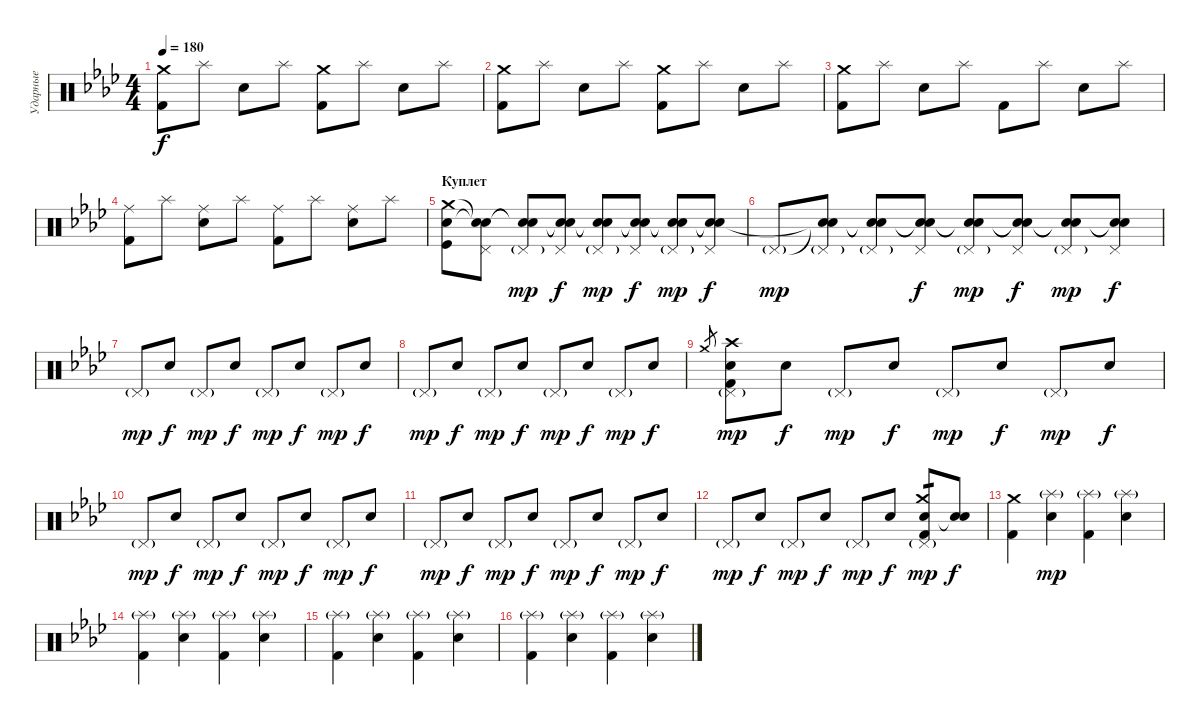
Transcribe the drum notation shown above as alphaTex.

\track ("Ударные" "Ударные") {instrument percussion}
\staff {score}
\articulation defaults
\ts (4 4)
\tempo 180
\clef neutral
\ks ab
("Kick (hit) 2" "Crash medium (hit)").8{dy f} "Splash (hit)".8 "Electric Snare (hit)".8 "Splash (hit)".8 ("Kick (hit) 2" "Crash medium (hit)").8 "Splash (hit)".8 "Electric Snare (hit)".8 "Splash (hit)".8 |
("Kick (hit) 2" "Crash medium (hit)").8 "Splash (hit)".8 "Electric Snare (hit)".8 "Splash (hit)".8 ("Kick (hit) 2" "Crash medium (hit)").8 "Splash (hit)".8 "Electric Snare (hit)".8 "Splash (hit)".8 |
("Kick (hit) 2" "Crash medium (hit)").8 "Splash (hit)".8 "Electric Snare (hit)".8 "Splash (hit)".8 "Kick (hit) 2".8 "Splash (hit)".8 "Electric Snare (hit)".8 "Splash (hit)".8 |
("Kick (hit) 2" "Ride (middle)").8 "Splash (hit)".8 ("Electric Snare (hit)" "Ride (middle)").8 "Splash (hit)".8 ("Kick (hit) 2" "Ride (middle)").8 "Splash (hit)".8 ("Electric Snare (hit)" "Ride (middle)").8 "Splash (hit)".8 |
\section ("" "Куплет")
("Crash medium (hit)" "Electric Snare (hit)" "Kick (hit)").8 ("Snare (hit)"{t} "Snare (hit)"{t} "Pedal Hi-Hat (hit)"{x}).8 ("Snare (hit)"{t} "Snare (hit)"{t} "Pedal Hi-Hat (hit)"{g}).8{dy mp} ("Snare (hit)"{t} "Snare (hit)"{t} "Pedal Hi-Hat (hit)"{x}).8{dy f} ("Snare (hit)"{t} "Snare (hit)"{t} "Pedal Hi-Hat (hit)"{g}).8{dy mp} ("Snare (hit)"{t} "Snare (hit)"{t} "Pedal Hi-Hat (hit)"{x}).8{dy f} ("Snare (hit)"{t} "Snare (hit)"{t} "Pedal Hi-Hat (hit)"{g}).8{dy mp} ("Snare (hit)"{t} "Snare (hit)"{t} "Pedal Hi-Hat (hit)"{x}).8{dy f} |
"Pedal Hi-Hat (hit)"{g}.8{dy mp} ("Snare (hit)"{t} "Snare (hit)"{t} "Pedal Hi-Hat (hit)"{g x}).8 ("Snare (hit)"{t} "Snare (hit)"{t} "Pedal Hi-Hat (hit)"{g}).8 ("Snare (hit)"{t} "Snare (hit)"{t} "Pedal Hi-Hat (hit)"{x}).8{dy f} ("Snare (hit)"{t} "Snare (hit)"{t} "Pedal Hi-Hat (hit)"{g}).8{dy mp} ("Snare (hit)"{t} "Snare (hit)"{t} "Pedal Hi-Hat (hit)"{x}).8{dy f} ("Snare (hit)"{t} "Snare (hit)"{t} "Pedal Hi-Hat (hit)"{g}).8{dy mp} ("Snare (hit)"{t} "Snare (hit)"{t} "Pedal Hi-Hat (hit)"{x}).8{dy f} |
"Pedal Hi-Hat (hit)"{g}.8{dy mp} "Snare (hit)"{x}.8{dy f} "Pedal Hi-Hat (hit)"{g}.8{dy mp} "Snare (hit)"{x}.8{dy f} "Pedal Hi-Hat (hit)"{g}.8{dy mp} "Snare (hit)"{x}.8{dy f} "Pedal Hi-Hat (hit)"{g}.8{dy mp} "Snare (hit)"{x}.8{dy f} |
"Pedal Hi-Hat (hit)"{g}.8{dy mp} "Snare (hit)"{x}.8{dy f} "Pedal Hi-Hat (hit)"{g}.8{dy mp} "Snare (hit)"{x}.8{dy f} "Pedal Hi-Hat (hit)"{g}.8{dy mp} "Snare (hit)"{x}.8{dy f} "Pedal Hi-Hat (hit)"{g}.8{dy mp} "Snare (hit)"{x}.8{dy f} |
"Crash medium (hit)".8{gr} ("Kick (hit) 2" "Electric Snare (hit)" "Pedal Hi-Hat (hit)"{g} "Crash high (hit)").8{dy mp} "Snare (hit)"{x}.8{dy f} "Pedal Hi-Hat (hit)"{g}.8{dy mp} "Snare (hit)"{x}.8{dy f} "Pedal Hi-Hat (hit)"{g}.8{dy mp} "Snare (hit)"{x}.8{dy f} "Pedal Hi-Hat (hit)"{g}.8{dy mp} "Snare (hit)"{x}.8{dy f} |
"Pedal Hi-Hat (hit)"{g}.8{dy mp} "Snare (hit)"{x}.8{dy f} "Pedal Hi-Hat (hit)"{g}.8{dy mp} "Snare (hit)"{x}.8{dy f} "Pedal Hi-Hat (hit)"{g}.8{dy mp} "Snare (hit)"{x}.8{dy f} "Pedal Hi-Hat (hit)"{g}.8{dy mp} "Snare (hit)"{x}.8{dy f} |
"Pedal Hi-Hat (hit)"{g}.8{dy mp} "Snare (hit)"{x}.8{dy f} "Pedal Hi-Hat (hit)"{g}.8{dy mp} "Snare (hit)"{x}.8{dy f} "Pedal Hi-Hat (hit)"{g}.8{dy mp} "Snare (hit)"{x}.8{dy f} "Pedal Hi-Hat (hit)"{g}.8{dy mp} "Snare (hit)"{x}.8{dy f} |
"Pedal Hi-Hat (hit)"{g}.8{dy mp} "Snare (hit)"{x}.8{dy f} "Pedal Hi-Hat (hit)"{g}.8{dy mp} "Snare (hit)"{x}.8{dy f} "Pedal Hi-Hat (hit)"{g}.8{dy mp} "Snare (hit)"{x}.8{dy f} ("Electric Snare (hit)" "Kick (hit) 2" "Pedal Hi-Hat (hit)"{g} "Crash medium (hit)").8{tp 1 dy mp} ("Snare (hit)"{t} "Snare (hit)"{x}).8{dy f} |
("Kick (hit) 2" "Crash medium (hit)").4 ("Electric Snare (hit)" "Splash (hit)"{g}).4{dy mp} ("Kick (hit) 2" "Splash (hit)"{g}).4 ("Electric Snare (hit)" "Splash (hit)"{g}).4 |
("Kick (hit) 2" "Splash (hit)"{g}).4 ("Electric Snare (hit)" "Splash (hit)"{g}).4 ("Kick (hit) 2" "Splash (hit)"{g}).4 ("Electric Snare (hit)" "Splash (hit)"{g}).4 |
("Kick (hit) 2" "Splash (hit)"{g}).4 ("Electric Snare (hit)" "Splash (hit)"{g}).4 ("Kick (hit) 2" "Splash (hit)"{g}).4 ("Electric Snare (hit)" "Splash (hit)"{g}).4 |
("Kick (hit) 2" "Splash (hit)"{g}).4 ("Electric Snare (hit)" "Splash (hit)"{g}).4 ("Kick (hit) 2" "Splash (hit)"{g}).4 ("Electric Snare (hit)" "Splash (hit)"{g}).4
